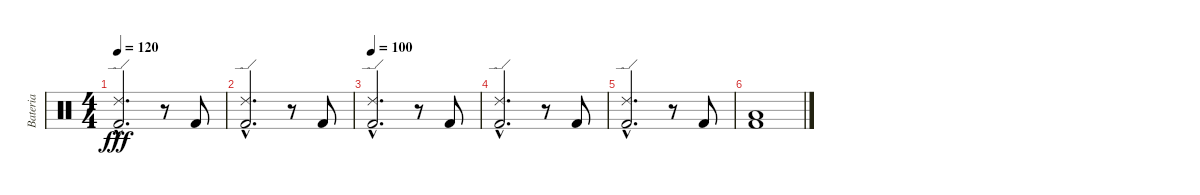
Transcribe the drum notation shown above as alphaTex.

\track ("Bateria" "Bateria") {instrument percussion}
\staff {score}
\articulation defaults
\ts (4 4)
\tempo 120
\clef neutral
\ks c
("Ride (edge) 2"{hac} "Kick (hit) 2"{hac}).2{d dy fff} r.8 "Kick (hit) 2".8 |
("Ride (edge) 2"{hac} "Kick (hit) 2"{hac}).2{d} r.8 "Kick (hit) 2".8 |
\tempo 100
("Ride (edge) 2"{hac} "Kick (hit) 2"{hac}).2{d} r.8 "Kick (hit) 2".8 |
("Ride (edge) 2"{hac} "Kick (hit) 2"{hac}).2{d} r.8 "Kick (hit) 2".8 |
("Ride (edge) 2"{hac} "Kick (hit) 2"{hac}).2{d} r.8 "Kick (hit) 2".8 |
("Low Floor Tom (hit)" "Kick (hit) 2").1
